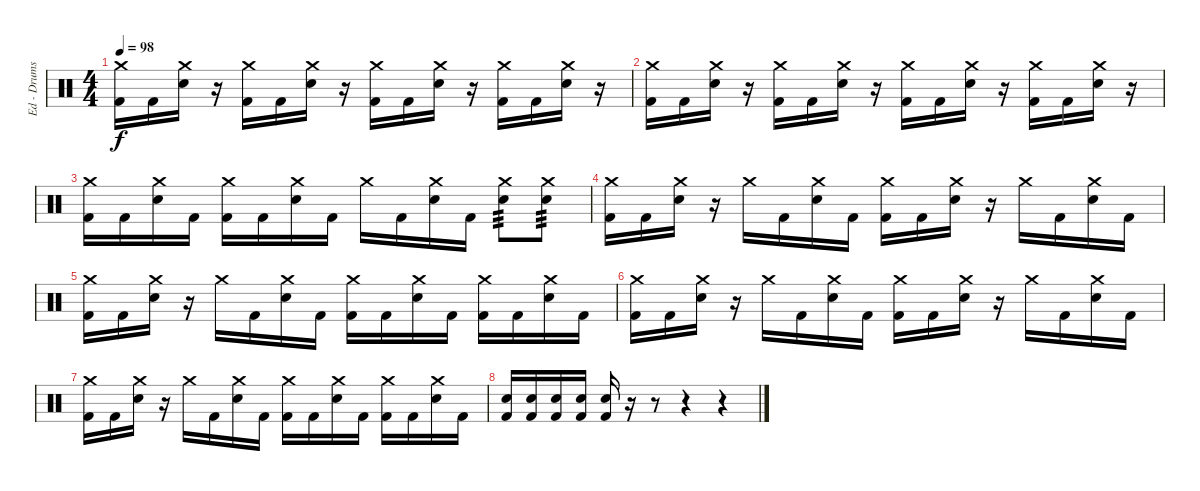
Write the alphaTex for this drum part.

\track ("Ed - Drums" "Ed - Drums") {instrument percussion}
\staff {score}
\articulation defaults
\ts (4 4)
\tempo 98
\clef neutral
\ks c
("Crash medium (hit)" "Kick (hit) 2").16{dy f} "Kick (hit) 2".16 ("Crash medium (hit)" "Electric Snare (hit)").16 r.16 ("Crash medium (hit)" "Kick (hit) 2").16 "Kick (hit) 2".16 ("Crash medium (hit)" "Electric Snare (hit)").16 r.16 ("Crash medium (hit)" "Kick (hit) 2").16 "Kick (hit) 2".16 ("Crash medium (hit)" "Electric Snare (hit)").16 r.16 ("Crash medium (hit)" "Kick (hit) 2").16 "Kick (hit) 2".16 ("Crash medium (hit)" "Electric Snare (hit)").16 r.16 |
("Crash medium (hit)" "Kick (hit) 2").16 "Kick (hit) 2".16 ("Crash medium (hit)" "Electric Snare (hit)").16 r.16 ("Crash medium (hit)" "Kick (hit) 2").16 "Kick (hit) 2".16 ("Crash medium (hit)" "Electric Snare (hit)").16 r.16 ("Crash medium (hit)" "Kick (hit) 2").16 "Kick (hit) 2".16 ("Crash medium (hit)" "Electric Snare (hit)").16 r.16 ("Crash medium (hit)" "Kick (hit) 2").16 "Kick (hit) 2".16 ("Crash medium (hit)" "Electric Snare (hit)").16 r.16 |
("Crash medium (hit)" "Kick (hit) 2").16 "Kick (hit) 2".16 ("Crash medium (hit)" "Electric Snare (hit)").16 "Kick (hit) 2".16 ("Crash medium (hit)" "Kick (hit) 2").16 "Kick (hit) 2".16 ("Crash medium (hit)" "Electric Snare (hit)").16 "Kick (hit) 2".16 "Crash medium (hit)".16 "Kick (hit) 2".16 ("Crash medium (hit)" "Electric Snare (hit)").16 "Kick (hit) 2".16 ("Crash medium (hit)" "Electric Snare (hit)").8{tp 3} ("Crash medium (hit)" "Electric Snare (hit)").8{tp 3} |
("Crash medium (hit)" "Kick (hit) 2").16 "Kick (hit) 2".16 ("Crash medium (hit)" "Electric Snare (hit)").16 r.16 "Crash medium (hit)".16 "Kick (hit) 2".16 ("Crash medium (hit)" "Electric Snare (hit)").16 "Kick (hit) 2".16 ("Crash medium (hit)" "Kick (hit) 2").16 "Kick (hit) 2".16 ("Crash medium (hit)" "Electric Snare (hit)").16 r.16 "Crash medium (hit)".16 "Kick (hit) 2".16 ("Crash medium (hit)" "Electric Snare (hit)").16 "Kick (hit) 2".16 |
("Crash medium (hit)" "Kick (hit) 2").16 "Kick (hit) 2".16 ("Crash medium (hit)" "Electric Snare (hit)").16 r.16 "Crash medium (hit)".16 "Kick (hit) 2".16 ("Crash medium (hit)" "Electric Snare (hit)").16 "Kick (hit) 2".16 ("Crash medium (hit)" "Kick (hit) 2").16 "Kick (hit) 2".16 ("Crash medium (hit)" "Electric Snare (hit)").16 "Kick (hit) 2".16 ("Crash medium (hit)" "Kick (hit) 2").16 "Kick (hit) 2".16 ("Crash medium (hit)" "Electric Snare (hit)").16 "Kick (hit) 2".16 |
("Crash medium (hit)" "Kick (hit) 2").16 "Kick (hit) 2".16 ("Crash medium (hit)" "Electric Snare (hit)").16 r.16 "Crash medium (hit)".16 "Kick (hit) 2".16 ("Crash medium (hit)" "Electric Snare (hit)").16 "Kick (hit) 2".16 ("Crash medium (hit)" "Kick (hit) 2").16 "Kick (hit) 2".16 ("Crash medium (hit)" "Electric Snare (hit)").16 r.16 "Crash medium (hit)".16 "Kick (hit) 2".16 ("Crash medium (hit)" "Electric Snare (hit)").16 "Kick (hit) 2".16 |
("Crash medium (hit)" "Kick (hit) 2").16 "Kick (hit) 2".16 ("Crash medium (hit)" "Electric Snare (hit)").16 r.16 "Crash medium (hit)".16 "Kick (hit) 2".16 ("Crash medium (hit)" "Electric Snare (hit)").16 "Kick (hit) 2".16 ("Crash medium (hit)" "Kick (hit) 2").16 "Kick (hit) 2".16 ("Crash medium (hit)" "Electric Snare (hit)").16 "Kick (hit) 2".16 ("Crash medium (hit)" "Kick (hit) 2").16 "Kick (hit) 2".16 ("Crash medium (hit)" "Electric Snare (hit)").16 "Kick (hit) 2".16 |
("Electric Snare (hit)" "Kick (hit) 2").16 ("Electric Snare (hit)" "Kick (hit) 2").16 ("Electric Snare (hit)" "Kick (hit) 2").16 ("Electric Snare (hit)" "Kick (hit) 2").16 ("Electric Snare (hit)" "Kick (hit) 2").16 r.16 r.8 r.4 r.4
